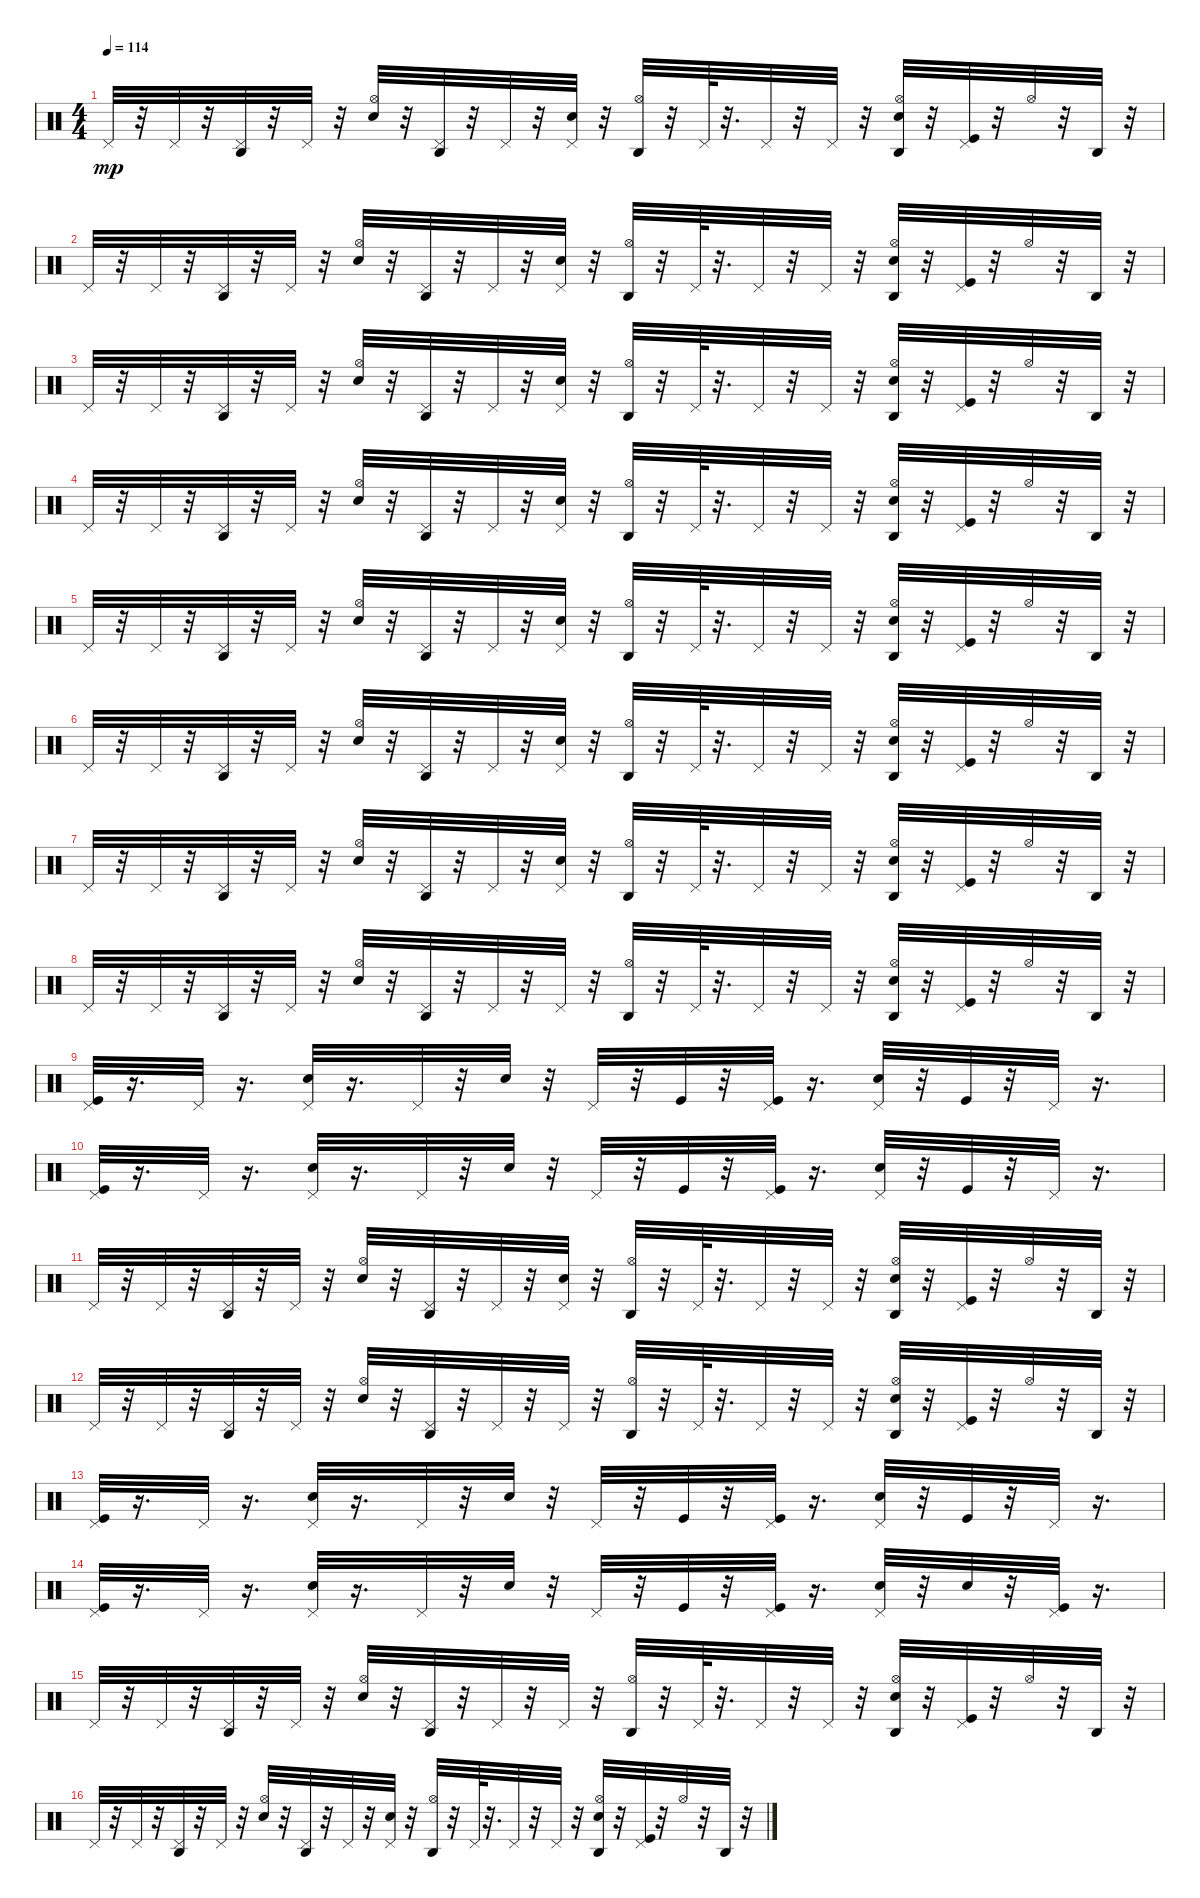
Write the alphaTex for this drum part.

\track "" {instrument percussion}
\staff {score}
\articulation defaults
\ts (4 4)
\tempo 114
\clef neutral
\ks c "Pedal Hi-Hat (hit)".32{dy mp}
r.32 "Pedal Hi-Hat (hit)".32 r.32 ("Agogo high (hit)" "Pedal Hi-Hat (hit)").32 r.32 "Pedal Hi-Hat (hit)".32 r.32 ("Hi-Hat (open)" "Electric Snare (hit)").32 r.32 ("Pedal Hi-Hat (hit)" "Agogo high (hit)").32 r.32 "Pedal Hi-Hat (hit)".32 r.32 ("Pedal Hi-Hat (hit)" "Snare (hit) 2").32 r.32 ("Hi-Hat (open)" "Agogo high (hit)").32 r.32 "Pedal Hi-Hat (hit)".64 r.32{d} "Pedal Hi-Hat (hit)".32 r.32 "Pedal Hi-Hat (hit)".32 r.32 ("Hi-Hat (open)" "Agogo high (hit)" "Electric Snare (hit)").32 r.32 ("Pedal Hi-Hat (hit)" "Kick (hit)").32 r.32 "Hi-Hat (open)".32 r.32 "Agogo high (hit)".32 r.32 |
"Pedal Hi-Hat (hit)".32 r.32 "Pedal Hi-Hat (hit)".32 r.32 ("Agogo high (hit)" "Pedal Hi-Hat (hit)").32 r.32 "Pedal Hi-Hat (hit)".32 r.32 ("Hi-Hat (open)" "Electric Snare (hit)").32 r.32 ("Pedal Hi-Hat (hit)" "Agogo high (hit)").32 r.32 "Pedal Hi-Hat (hit)".32 r.32 ("Pedal Hi-Hat (hit)" "Snare (hit) 2").32 r.32 ("Hi-Hat (open)" "Agogo high (hit)").32 r.32 "Pedal Hi-Hat (hit)".64 r.32{d} "Pedal Hi-Hat (hit)".32 r.32 "Pedal Hi-Hat (hit)".32 r.32 ("Hi-Hat (open)" "Agogo high (hit)" "Electric Snare (hit)").32 r.32 ("Pedal Hi-Hat (hit)" "Kick (hit)").32 r.32 "Hi-Hat (open)".32 r.32 "Agogo high (hit)".32 r.32 |
"Pedal Hi-Hat (hit)".32 r.32 "Pedal Hi-Hat (hit)".32 r.32 ("Agogo high (hit)" "Pedal Hi-Hat (hit)").32 r.32 "Pedal Hi-Hat (hit)".32 r.32 ("Hi-Hat (open)" "Electric Snare (hit)").32 r.32 ("Pedal Hi-Hat (hit)" "Agogo high (hit)").32 r.32 "Pedal Hi-Hat (hit)".32 r.32 ("Pedal Hi-Hat (hit)" "Snare (hit) 2").32 r.32 ("Hi-Hat (open)" "Agogo high (hit)").32 r.32 "Pedal Hi-Hat (hit)".64 r.32{d} "Pedal Hi-Hat (hit)".32 r.32 "Pedal Hi-Hat (hit)".32 r.32 ("Hi-Hat (open)" "Agogo high (hit)" "Electric Snare (hit)").32 r.32 ("Pedal Hi-Hat (hit)" "Kick (hit)").32 r.32 "Hi-Hat (open)".32 r.32 "Agogo high (hit)".32 r.32 |
"Pedal Hi-Hat (hit)".32 r.32 "Pedal Hi-Hat (hit)".32 r.32 ("Agogo high (hit)" "Pedal Hi-Hat (hit)").32 r.32 "Pedal Hi-Hat (hit)".32 r.32 ("Hi-Hat (open)" "Electric Snare (hit)").32 r.32 ("Pedal Hi-Hat (hit)" "Agogo high (hit)").32 r.32 "Pedal Hi-Hat (hit)".32 r.32 ("Pedal Hi-Hat (hit)" "Snare (hit) 2").32 r.32 ("Hi-Hat (open)" "Agogo high (hit)").32 r.32 "Pedal Hi-Hat (hit)".64 r.32{d} "Pedal Hi-Hat (hit)".32 r.32 "Pedal Hi-Hat (hit)".32 r.32 ("Hi-Hat (open)" "Agogo high (hit)" "Electric Snare (hit)").32 r.32 ("Pedal Hi-Hat (hit)" "Kick (hit)").32 r.32 "Hi-Hat (open)".32 r.32 "Agogo high (hit)".32 r.32 |
"Pedal Hi-Hat (hit)".32 r.32 "Pedal Hi-Hat (hit)".32 r.32 ("Agogo high (hit)" "Pedal Hi-Hat (hit)").32 r.32 "Pedal Hi-Hat (hit)".32 r.32 ("Hi-Hat (open)" "Electric Snare (hit)").32 r.32 ("Pedal Hi-Hat (hit)" "Agogo high (hit)").32 r.32 "Pedal Hi-Hat (hit)".32 r.32 ("Pedal Hi-Hat (hit)" "Snare (hit) 2").32 r.32 ("Hi-Hat (open)" "Agogo high (hit)").32 r.32 "Pedal Hi-Hat (hit)".64 r.32{d} "Pedal Hi-Hat (hit)".32 r.32 "Pedal Hi-Hat (hit)".32 r.32 ("Hi-Hat (open)" "Agogo high (hit)" "Electric Snare (hit)").32 r.32 ("Pedal Hi-Hat (hit)" "Kick (hit)").32 r.32 "Hi-Hat (open)".32 r.32 "Agogo high (hit)".32 r.32 |
"Pedal Hi-Hat (hit)".32 r.32 "Pedal Hi-Hat (hit)".32 r.32 ("Agogo high (hit)" "Pedal Hi-Hat (hit)").32 r.32 "Pedal Hi-Hat (hit)".32 r.32 ("Hi-Hat (open)" "Electric Snare (hit)").32 r.32 ("Pedal Hi-Hat (hit)" "Agogo high (hit)").32 r.32 "Pedal Hi-Hat (hit)".32 r.32 ("Pedal Hi-Hat (hit)" "Snare (hit) 2").32 r.32 ("Hi-Hat (open)" "Agogo high (hit)").32 r.32 "Pedal Hi-Hat (hit)".64 r.32{d} "Pedal Hi-Hat (hit)".32 r.32 "Pedal Hi-Hat (hit)".32 r.32 ("Hi-Hat (open)" "Agogo high (hit)" "Electric Snare (hit)").32 r.32 ("Pedal Hi-Hat (hit)" "Kick (hit)").32 r.32 "Hi-Hat (open)".32 r.32 "Agogo high (hit)".32 r.32 |
"Pedal Hi-Hat (hit)".32 r.32 "Pedal Hi-Hat (hit)".32 r.32 ("Agogo high (hit)" "Pedal Hi-Hat (hit)").32 r.32 "Pedal Hi-Hat (hit)".32 r.32 ("Hi-Hat (open)" "Electric Snare (hit)").32 r.32 ("Pedal Hi-Hat (hit)" "Agogo high (hit)").32 r.32 "Pedal Hi-Hat (hit)".32 r.32 ("Pedal Hi-Hat (hit)" "Snare (hit) 2").32 r.32 ("Hi-Hat (open)" "Agogo high (hit)").32 r.32 "Pedal Hi-Hat (hit)".64 r.32{d} "Pedal Hi-Hat (hit)".32 r.32 "Pedal Hi-Hat (hit)".32 r.32 ("Hi-Hat (open)" "Agogo high (hit)" "Electric Snare (hit)").32 r.32 ("Pedal Hi-Hat (hit)" "Kick (hit)").32 r.32 "Hi-Hat (open)".32 r.32 "Agogo high (hit)".32 r.32 |
"Pedal Hi-Hat (hit)".32 r.32 "Pedal Hi-Hat (hit)".32 r.32 ("Agogo high (hit)" "Pedal Hi-Hat (hit)").32 r.32 "Pedal Hi-Hat (hit)".32 r.32 ("Hi-Hat (open)" "Electric Snare (hit)").32 r.32 ("Pedal Hi-Hat (hit)" "Agogo high (hit)").32 r.32 "Pedal Hi-Hat (hit)".32 r.32 "Pedal Hi-Hat (hit)".32 r.32 ("Agogo high (hit)" "Hi-Hat (open)").32 r.32 "Pedal Hi-Hat (hit)".64 r.32{d} "Pedal Hi-Hat (hit)".32 r.32 "Pedal Hi-Hat (hit)".32 r.32 ("Hi-Hat (open)" "Electric Snare (hit)" "Agogo high (hit)").32 r.32 ("Pedal Hi-Hat (hit)" "Kick (hit)").32 r.32 "Hi-Hat (open)".32 r.32 "Agogo high (hit)".32 r.32 |
("Kick (hit)" "Pedal Hi-Hat (hit)").32 r.16{d} "Pedal Hi-Hat (hit)".32 r.16{d} ("Pedal Hi-Hat (hit)" "Electric Snare (hit)").32 r.16{d} "Pedal Hi-Hat (hit)".32 r.32 "Snare (hit) 2".32 r.32 "Pedal Hi-Hat (hit)".32 r.32 "Kick (hit)".32 r.32 ("Pedal Hi-Hat (hit)" "Kick (hit)").32 r.16{d} ("Pedal Hi-Hat (hit)" "Electric Snare (hit)").32 r.32 "Kick (hit)".32 r.32 "Pedal Hi-Hat (hit)".32 r.16{d} |
("Pedal Hi-Hat (hit)" "Kick (hit)").32 r.16{d} "Pedal Hi-Hat (hit)".32 r.16{d} ("Pedal Hi-Hat (hit)" "Electric Snare (hit)").32 r.16{d} "Pedal Hi-Hat (hit)".32 r.32 "Snare (hit) 2".32 r.32 "Pedal Hi-Hat (hit)".32 r.32 "Kick (hit)".32 r.32 ("Pedal Hi-Hat (hit)" "Kick (hit)").32 r.16{d} ("Pedal Hi-Hat (hit)" "Electric Snare (hit)").32 r.32 "Kick (hit)".32 r.32 "Pedal Hi-Hat (hit)".32 r.16{d} |
"Pedal Hi-Hat (hit)".32 r.32 "Pedal Hi-Hat (hit)".32 r.32 ("Agogo high (hit)" "Pedal Hi-Hat (hit)").32 r.32 "Pedal Hi-Hat (hit)".32 r.32 ("Hi-Hat (open)" "Electric Snare (hit)").32 r.32 ("Pedal Hi-Hat (hit)" "Agogo high (hit)").32 r.32 "Pedal Hi-Hat (hit)".32 r.32 ("Pedal Hi-Hat (hit)" "Snare (hit) 2").32 r.32 ("Hi-Hat (open)" "Agogo high (hit)").32 r.32 "Pedal Hi-Hat (hit)".64 r.32{d} "Pedal Hi-Hat (hit)".32 r.32 "Pedal Hi-Hat (hit)".32 r.32 ("Hi-Hat (open)" "Agogo high (hit)" "Electric Snare (hit)").32 r.32 ("Pedal Hi-Hat (hit)" "Kick (hit)").32 r.32 "Hi-Hat (open)".32 r.32 "Agogo high (hit)".32 r.32 |
"Pedal Hi-Hat (hit)".32 r.32 "Pedal Hi-Hat (hit)".32 r.32 ("Agogo high (hit)" "Pedal Hi-Hat (hit)").32 r.32 "Pedal Hi-Hat (hit)".32 r.32 ("Hi-Hat (open)" "Electric Snare (hit)").32 r.32 ("Pedal Hi-Hat (hit)" "Agogo high (hit)").32 r.32 "Pedal Hi-Hat (hit)".32 r.32 "Pedal Hi-Hat (hit)".32 r.32 ("Agogo high (hit)" "Hi-Hat (open)").32 r.32 "Pedal Hi-Hat (hit)".64 r.32{d} "Pedal Hi-Hat (hit)".32 r.32 "Pedal Hi-Hat (hit)".32 r.32 ("Hi-Hat (open)" "Electric Snare (hit)" "Agogo high (hit)").32 r.32 ("Pedal Hi-Hat (hit)" "Kick (hit)").32 r.32 "Hi-Hat (open)".32 r.32 "Agogo high (hit)".32 r.32 |
("Kick (hit)" "Pedal Hi-Hat (hit)").32 r.16{d} "Pedal Hi-Hat (hit)".32 r.16{d} ("Pedal Hi-Hat (hit)" "Electric Snare (hit)").32 r.16{d} "Pedal Hi-Hat (hit)".32 r.32 "Snare (hit) 2".32 r.32 "Pedal Hi-Hat (hit)".32 r.32 "Kick (hit)".32 r.32 ("Pedal Hi-Hat (hit)" "Kick (hit)").32 r.16{d} ("Pedal Hi-Hat (hit)" "Electric Snare (hit)").32 r.32 "Kick (hit)".32 r.32 "Pedal Hi-Hat (hit)".32 r.16{d} |
("Pedal Hi-Hat (hit)" "Kick (hit)").32 r.16{d} "Pedal Hi-Hat (hit)".32 r.16{d} ("Pedal Hi-Hat (hit)" "Electric Snare (hit)").32 r.16{d} "Pedal Hi-Hat (hit)".32 r.32 "Snare (hit) 2".32 r.32 "Pedal Hi-Hat (hit)".32 r.32 "Kick (hit)".32 r.32 ("Pedal Hi-Hat (hit)" "Kick (hit)").32 r.16{d} ("Pedal Hi-Hat (hit)" "Electric Snare (hit)").32 r.32 "Electric Snare (hit)".32 r.32 ("Pedal Hi-Hat (hit)" "Kick (hit)").32 r.16{d} |
"Pedal Hi-Hat (hit)".32 r.32 "Pedal Hi-Hat (hit)".32 r.32 ("Agogo high (hit)" "Pedal Hi-Hat (hit)").32 r.32 "Pedal Hi-Hat (hit)".32 r.32 ("Hi-Hat (open)" "Electric Snare (hit)").32 r.32 ("Pedal Hi-Hat (hit)" "Agogo high (hit)").32 r.32 "Pedal Hi-Hat (hit)".32 r.32 "Pedal Hi-Hat (hit)".32 r.32 ("Agogo high (hit)" "Hi-Hat (open)").32 r.32 "Pedal Hi-Hat (hit)".64 r.32{d} "Pedal Hi-Hat (hit)".32 r.32 "Pedal Hi-Hat (hit)".32 r.32 ("Hi-Hat (open)" "Electric Snare (hit)" "Agogo high (hit)").32 r.32 ("Pedal Hi-Hat (hit)" "Kick (hit)").32 r.32 "Hi-Hat (open)".32 r.32 "Agogo high (hit)".32 r.32 |
"Pedal Hi-Hat (hit)".32 r.32 "Pedal Hi-Hat (hit)".32 r.32 ("Agogo high (hit)" "Pedal Hi-Hat (hit)").32 r.32 "Pedal Hi-Hat (hit)".32 r.32 ("Hi-Hat (open)" "Electric Snare (hit)").32 r.32 ("Pedal Hi-Hat (hit)" "Agogo high (hit)").32 r.32 "Pedal Hi-Hat (hit)".32 r.32 ("Pedal Hi-Hat (hit)" "Snare (hit) 2").32 r.32 ("Hi-Hat (open)" "Agogo high (hit)").32 r.32 "Pedal Hi-Hat (hit)".64 r.32{d} "Pedal Hi-Hat (hit)".32 r.32 "Pedal Hi-Hat (hit)".32 r.32 ("Hi-Hat (open)" "Agogo high (hit)" "Electric Snare (hit)").32 r.32 ("Pedal Hi-Hat (hit)" "Kick (hit)").32 r.32 "Hi-Hat (open)".32 r.32 "Agogo high (hit)".32 r.32
